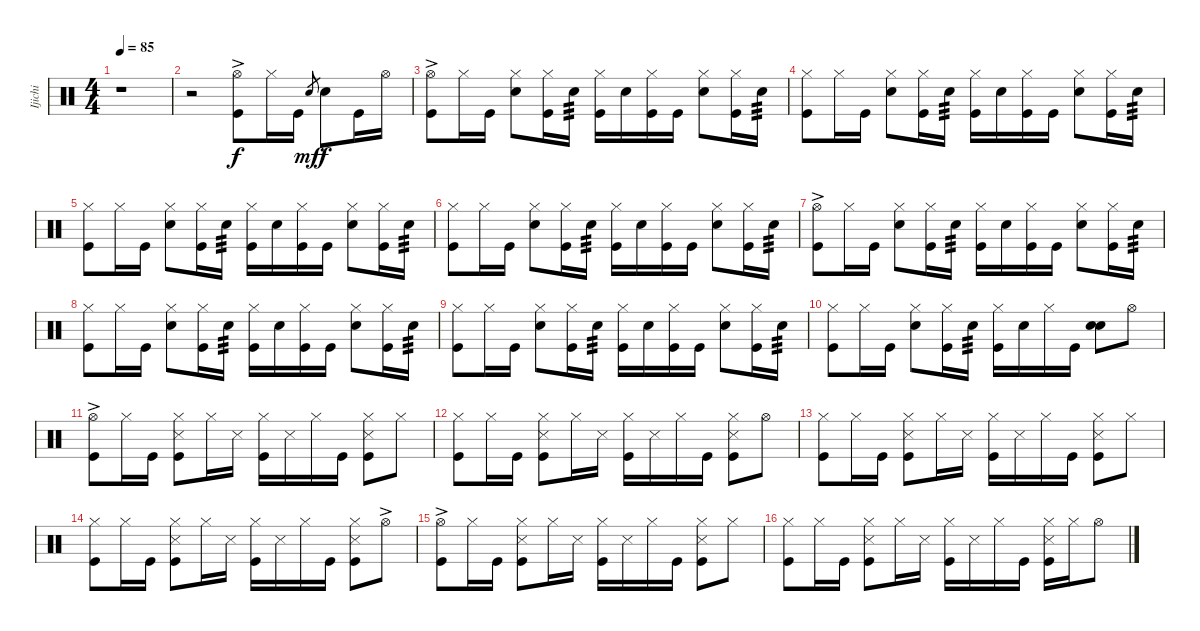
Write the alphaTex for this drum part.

\track ("Ijichi" "Ijichi") {instrument percussion}
\staff {score}
\articulation defaults
\ts (4 4)
\tempo 85
\clef neutral
\ks c
r.1{dy f} |
r.2 ("Hi-Hat (open)"{ac} "Kick (hit)").8 "Hi-Hat (closed)".16 "Kick (hit)".16 "Snare (hit) 2".8{gr dy mf} "Snare (hit) 2".8{dy f} "Kick (hit)".16 "Hi-Hat (open)".16 |
("Hi-Hat (open)"{ac} "Kick (hit)").8 "Hi-Hat (closed)".16 "Kick (hit)".16 ("Hi-Hat (closed)" "Snare (hit) 2").8 ("Hi-Hat (closed)" "Kick (hit)").16 "Snare (hit) 2".16{tp 3} ("Hi-Hat (closed)" "Kick (hit)").16 "Snare (hit) 2".16 ("Hi-Hat (closed)" "Kick (hit)").16 "Kick (hit)".16 ("Hi-Hat (closed)" "Snare (hit) 2").8 ("Hi-Hat (closed)" "Kick (hit)").16 "Snare (hit) 2".16{tp 3} |
("Hi-Hat (closed)" "Kick (hit)").8 "Hi-Hat (closed)".16 "Kick (hit)".16 ("Hi-Hat (closed)" "Snare (hit) 2").8 ("Hi-Hat (closed)" "Kick (hit)").16 "Snare (hit) 2".16{tp 3} ("Hi-Hat (closed)" "Kick (hit)").16 "Snare (hit) 2".16 ("Hi-Hat (closed)" "Kick (hit)").16 "Kick (hit)".16 ("Hi-Hat (closed)" "Snare (hit) 2").8 ("Hi-Hat (closed)" "Kick (hit)").16 "Snare (hit) 2".16{tp 3} |
("Hi-Hat (closed)" "Kick (hit)").8 "Hi-Hat (closed)".16 "Kick (hit)".16 ("Hi-Hat (closed)" "Snare (hit) 2").8 ("Hi-Hat (closed)" "Kick (hit)").16 "Snare (hit) 2".16{tp 3} ("Hi-Hat (closed)" "Kick (hit)").16 "Snare (hit) 2".16 ("Hi-Hat (closed)" "Kick (hit)").16 "Kick (hit)".16 ("Hi-Hat (closed)" "Snare (hit) 2").8 ("Hi-Hat (closed)" "Kick (hit)").16 "Snare (hit) 2".16{tp 3} |
("Hi-Hat (closed)" "Kick (hit)").8 "Hi-Hat (closed)".16 "Kick (hit)".16 ("Hi-Hat (closed)" "Snare (hit) 2").8 ("Hi-Hat (closed)" "Kick (hit)").16 "Snare (hit) 2".16{tp 3} ("Hi-Hat (closed)" "Kick (hit)").16 "Snare (hit) 2".16 ("Hi-Hat (closed)" "Kick (hit)").16 "Kick (hit)".16 ("Hi-Hat (closed)" "Snare (hit) 2").8 ("Hi-Hat (closed)" "Kick (hit)").16 "Snare (hit) 2".16{tp 3} |
("Hi-Hat (open)"{ac} "Kick (hit)").8 "Hi-Hat (closed)".16 "Kick (hit)".16 ("Hi-Hat (closed)" "Snare (hit) 2").8 ("Hi-Hat (closed)" "Kick (hit)").16 "Snare (hit) 2".16{tp 3} ("Hi-Hat (closed)" "Kick (hit)").16 "Snare (hit) 2".16 ("Hi-Hat (closed)" "Kick (hit)").16 "Kick (hit)".16 ("Hi-Hat (closed)" "Snare (hit) 2").8 ("Hi-Hat (closed)" "Kick (hit)").16 "Snare (hit) 2".16{tp 3} |
("Hi-Hat (closed)" "Kick (hit)").8 "Hi-Hat (closed)".16 "Kick (hit)".16 ("Hi-Hat (closed)" "Snare (hit) 2").8 ("Hi-Hat (closed)" "Kick (hit)").16 "Snare (hit) 2".16{tp 3} ("Hi-Hat (closed)" "Kick (hit)").16 "Snare (hit) 2".16 ("Hi-Hat (closed)" "Kick (hit)").16 "Kick (hit)".16 ("Hi-Hat (closed)" "Snare (hit) 2").8 ("Hi-Hat (closed)" "Kick (hit)").16 "Snare (hit) 2".16{tp 3} |
("Hi-Hat (closed)" "Kick (hit)").8 "Hi-Hat (closed)".16 "Kick (hit)".16 ("Hi-Hat (closed)" "Snare (hit) 2").8 ("Hi-Hat (closed)" "Kick (hit)").16 "Snare (hit) 2".16{tp 3} ("Hi-Hat (closed)" "Kick (hit)").16 "Snare (hit) 2".16 ("Hi-Hat (closed)" "Kick (hit)").16 "Kick (hit)".16 ("Hi-Hat (closed)" "Snare (hit) 2").8 ("Hi-Hat (closed)" "Kick (hit)").16 "Snare (hit) 2".16{tp 3} |
("Hi-Hat (closed)" "Kick (hit)").8 "Hi-Hat (closed)".16 "Kick (hit)".16 ("Hi-Hat (closed)" "Snare (hit) 2").8 ("Hi-Hat (closed)" "Kick (hit)").16 "Snare (hit) 2".16{tp 3} ("Hi-Hat (closed)" "Kick (hit)").16 "Snare (hit) 2".16 "Hi-Hat (closed)".16 "Kick (hit)".16 ("Snare (hit) 2" "Snare (hit) 2").8 "Hi-Hat (open)".8 |
("Hi-Hat (open)"{ac} "Kick (hit)").8 "Hi-Hat (closed)".16 "Kick (hit)".16 ("Hi-Hat (closed)" "Snare (side stick) 3" "Kick (hit)").8 "Hi-Hat (closed)".16 "Snare (side stick) 3".16 ("Hi-Hat (closed)" "Kick (hit)").16 "Snare (side stick) 3".16 "Hi-Hat (closed)".16 "Kick (hit)".16 ("Hi-Hat (closed)" "Snare (side stick) 3" "Kick (hit)").8 "Hi-Hat (closed)".8 |
("Hi-Hat (closed)" "Kick (hit)").8 "Hi-Hat (closed)".16 "Kick (hit)".16 ("Hi-Hat (closed)" "Snare (side stick) 3" "Kick (hit)").8 "Hi-Hat (closed)".16 "Snare (side stick) 3".16 ("Hi-Hat (closed)" "Kick (hit)").16 "Snare (side stick) 3".16 "Hi-Hat (closed)".16 "Kick (hit)".16 ("Hi-Hat (closed)" "Snare (side stick) 3" "Kick (hit)").8 "Hi-Hat (open)".8 |
("Hi-Hat (closed)" "Kick (hit)").8 "Hi-Hat (closed)".16 "Kick (hit)".16 ("Hi-Hat (closed)" "Snare (side stick) 3" "Kick (hit)").8 "Hi-Hat (closed)".16 "Snare (side stick) 3".16 ("Hi-Hat (closed)" "Kick (hit)").16 "Snare (side stick) 3".16 "Hi-Hat (closed)".16 "Kick (hit)".16 ("Hi-Hat (closed)" "Snare (side stick) 3" "Kick (hit)").8 "Hi-Hat (closed)".8 |
("Hi-Hat (closed)" "Kick (hit)").8 "Hi-Hat (closed)".16 "Kick (hit)".16 ("Hi-Hat (closed)" "Snare (side stick) 3" "Kick (hit)").8 "Hi-Hat (closed)".16 "Snare (side stick) 3".16 ("Hi-Hat (closed)" "Kick (hit)").16 "Snare (side stick) 3".16 "Hi-Hat (closed)".16 "Kick (hit)".16 ("Hi-Hat (closed)" "Snare (side stick) 3" "Kick (hit)").8 "Hi-Hat (open)"{ac}.8 |
("Hi-Hat (open)"{ac} "Kick (hit)").8 "Hi-Hat (closed)".16 "Kick (hit)".16 ("Hi-Hat (closed)" "Snare (side stick) 3" "Kick (hit)").8 "Hi-Hat (closed)".16 "Snare (side stick) 3".16 ("Hi-Hat (closed)" "Kick (hit)").16 "Snare (side stick) 3".16 "Hi-Hat (closed)".16 "Kick (hit)".16 ("Hi-Hat (closed)" "Snare (side stick) 3" "Kick (hit)").8 "Hi-Hat (closed)".8 |
("Hi-Hat (closed)" "Kick (hit)").8 "Hi-Hat (closed)".16 "Kick (hit)".16 ("Hi-Hat (closed)" "Snare (side stick) 3" "Kick (hit)").8 "Hi-Hat (closed)".16 "Snare (side stick) 3".16 ("Hi-Hat (closed)" "Kick (hit)").16 "Snare (side stick) 3".16 "Hi-Hat (closed)".16 "Kick (hit)".16 ("Hi-Hat (closed)" "Snare (side stick) 3" "Kick (hit)").16 "Hi-Hat (closed)".16 "Hi-Hat (open)".8
